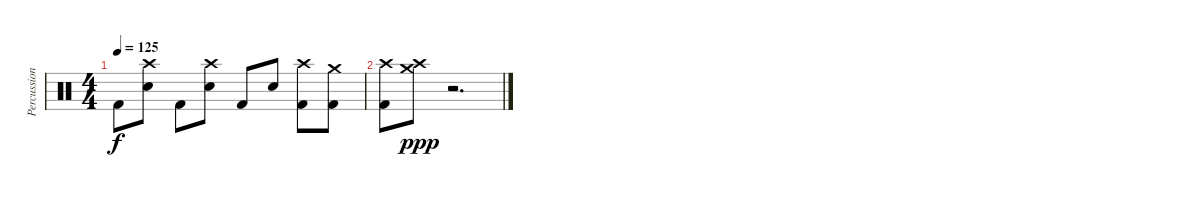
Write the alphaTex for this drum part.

\track ("Percussion" "Percussion") {mute instrument percussion}
\staff {score}
\articulation defaults
\ts (4 4)
\tempo 125
\clef neutral
\ks c "Kick (hit) 2".8{dy f}
("Crash high (hit)" "Electric Snare (hit)").8 "Kick (hit) 2".8 ("Crash high (hit)" "Electric Snare (hit)").8 "Kick (hit) 2".8 "Electric Snare (hit)".8 ("Crash high (hit)" "Kick (hit) 2").8 ("Crash medium (hit)" "Kick (hit) 2").8 |
("Crash high (hit)" "Kick (hit) 2").8 ("Crash high (hit)" "Crash medium (hit)").8{dy ppp} r.2{d}
